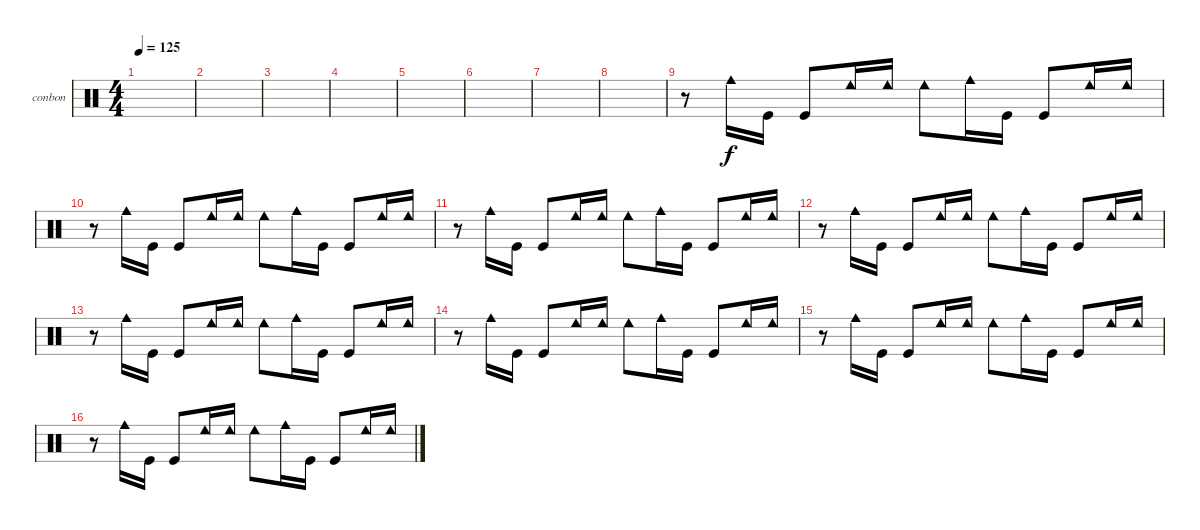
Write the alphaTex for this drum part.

\bracketExtendMode groupsimilarinstruments
\firstSystemTrackNameOrientation horizontal
\otherSystemsTrackNameOrientation horizontal
\track ("Bongos N Congas" "conbon") {instrument percussion}
\staff {score}
\articulation defaults
\ts (4 4)
\tempo 125
\clef neutral
\scale
0.333333
\ks c
|
\scale
0.333333 |
\scale
0.333333 |
\scale
0.333333 |
\scale
0.333333 |
\scale
0.333333 |
\scale
0.333333 |
\scale
0.333333 |
\scale
0.333333 r.8 "Cowbell medium (hit)".16 "Kick (hit)".16 "Kick (hit)".8 "Cowbell low (hit)".16 "Cowbell low (hit)".16 "Cowbell low (hit)".8 "Cowbell medium (hit)".16 "Kick (hit)".16 "Kick (hit)".8 "Cowbell low (hit)".16 "Cowbell low (hit)".16 |
\scale
0.333333 r.8 "Cowbell medium (hit)".16 "Kick (hit)".16 "Kick (hit)".8 "Cowbell low (hit)".16 "Cowbell low (hit)".16 "Cowbell low (hit)".8 "Cowbell medium (hit)".16 "Kick (hit)".16 "Kick (hit)".8 "Cowbell low (hit)".16 "Cowbell low (hit)".16 |
\scale
0.333333 r.8 "Cowbell medium (hit)".16 "Kick (hit)".16 "Kick (hit)".8 "Cowbell low (hit)".16 "Cowbell low (hit)".16 "Cowbell low (hit)".8 "Cowbell medium (hit)".16 "Kick (hit)".16 "Kick (hit)".8 "Cowbell low (hit)".16 "Cowbell low (hit)".16 |
\scale
0.333333 r.8 "Cowbell medium (hit)".16 "Kick (hit)".16 "Kick (hit)".8 "Cowbell low (hit)".16 "Cowbell low (hit)".16 "Cowbell low (hit)".8 "Cowbell medium (hit)".16 "Kick (hit)".16 "Kick (hit)".8 "Cowbell low (hit)".16 "Cowbell low (hit)".16 |
\scale
0.333333 r.8 "Cowbell medium (hit)".16 "Kick (hit)".16 "Kick (hit)".8 "Cowbell low (hit)".16 "Cowbell low (hit)".16 "Cowbell low (hit)".8 "Cowbell medium (hit)".16 "Kick (hit)".16 "Kick (hit)".8 "Cowbell low (hit)".16 "Cowbell low (hit)".16 |
\scale
0.333333 r.8 "Cowbell medium (hit)".16 "Kick (hit)".16 "Kick (hit)".8 "Cowbell low (hit)".16 "Cowbell low (hit)".16 "Cowbell low (hit)".8 "Cowbell medium (hit)".16 "Kick (hit)".16 "Kick (hit)".8 "Cowbell low (hit)".16 "Cowbell low (hit)".16 |
\scale
0.333333 r.8 "Cowbell medium (hit)".16 "Kick (hit)".16 "Kick (hit)".8 "Cowbell low (hit)".16 "Cowbell low (hit)".16 "Cowbell low (hit)".8 "Cowbell medium (hit)".16 "Kick (hit)".16 "Kick (hit)".8 "Cowbell low (hit)".16 "Cowbell low (hit)".16 |
\scale
0.333333 r.8 "Cowbell medium (hit)".16 "Kick (hit)".16 "Kick (hit)".8 "Cowbell low (hit)".16 "Cowbell low (hit)".16 "Cowbell low (hit)".8 "Cowbell medium (hit)".16 "Kick (hit)".16 "Kick (hit)".8 "Cowbell low (hit)".16 "Cowbell low (hit)".16
